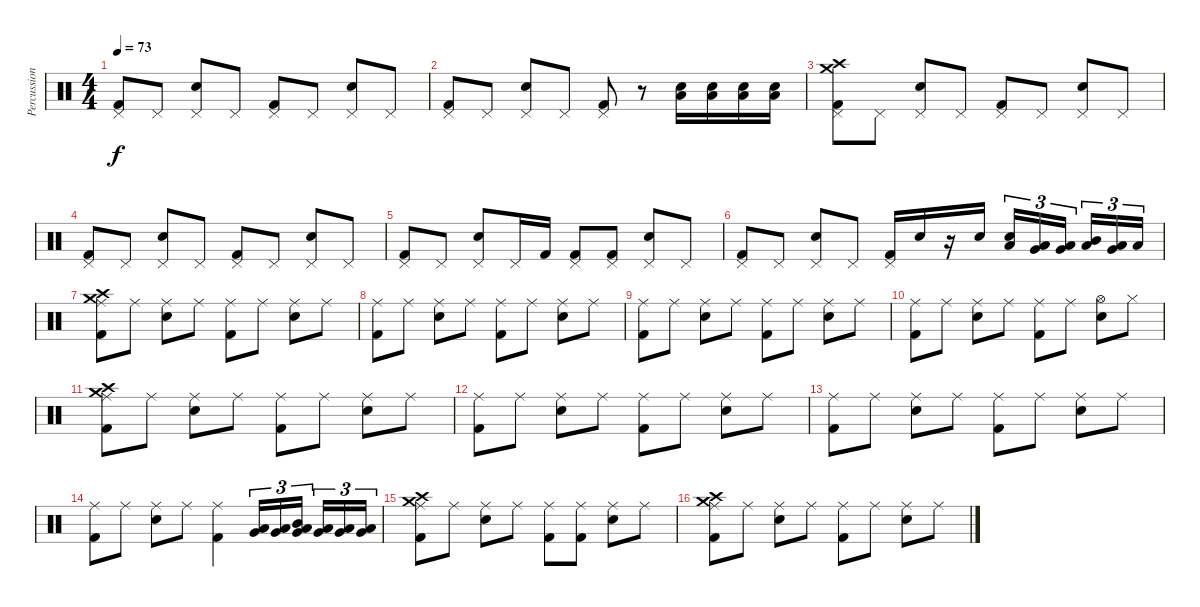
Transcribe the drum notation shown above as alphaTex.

\track ("Percussions" "Percussion") {instrument percussion}
\staff {score}
\articulation defaults
\ts (4 4)
\tempo 73
\clef neutral
\ks c
("Pedal Hi-Hat (hit)" "Kick (hit) 2").8{dy f} "Pedal Hi-Hat (hit)".8 ("Pedal Hi-Hat (hit)" "Electric Snare (hit)").8 "Pedal Hi-Hat (hit)".8 ("Pedal Hi-Hat (hit)" "Kick (hit) 2").8 "Pedal Hi-Hat (hit)".8 ("Pedal Hi-Hat (hit)" "Electric Snare (hit)").8 "Pedal Hi-Hat (hit)".8 |
("Pedal Hi-Hat (hit)" "Kick (hit) 2").8 "Pedal Hi-Hat (hit)".8 ("Pedal Hi-Hat (hit)" "Electric Snare (hit)").8 "Pedal Hi-Hat (hit)".8 ("Pedal Hi-Hat (hit)" "Kick (hit) 2").8 r.8 ("Low Floor Tom (hit)" "Electric Snare (hit)").16 ("Low Floor Tom (hit)" "Electric Snare (hit)").16 ("Low Floor Tom (hit)" "Electric Snare (hit)").16 ("Low Floor Tom (hit)" "Electric Snare (hit)").16 |
("Crash medium (hit)" "Crash high (hit)" "Pedal Hi-Hat (hit)" "Kick (hit) 2").8 "Pedal Hi-Hat (hit)".8 ("Pedal Hi-Hat (hit)" "Electric Snare (hit)").8 "Pedal Hi-Hat (hit)".8 ("Pedal Hi-Hat (hit)" "Kick (hit) 2").8 "Pedal Hi-Hat (hit)".8 ("Pedal Hi-Hat (hit)" "Electric Snare (hit)").8 "Pedal Hi-Hat (hit)".8 |
("Pedal Hi-Hat (hit)" "Kick (hit) 2").8 "Pedal Hi-Hat (hit)".8 ("Pedal Hi-Hat (hit)" "Electric Snare (hit)").8 "Pedal Hi-Hat (hit)".8 ("Pedal Hi-Hat (hit)" "Kick (hit) 2").8 "Pedal Hi-Hat (hit)".8 ("Pedal Hi-Hat (hit)" "Electric Snare (hit)").8 "Pedal Hi-Hat (hit)".8 |
("Pedal Hi-Hat (hit)" "Kick (hit) 2").8 "Pedal Hi-Hat (hit)".8 ("Pedal Hi-Hat (hit)" "Electric Snare (hit)").8 "Pedal Hi-Hat (hit)".16 "Kick (hit) 2".16 ("Pedal Hi-Hat (hit)" "Kick (hit) 2").8 ("Pedal Hi-Hat (hit)" "Kick (hit) 2").8 ("Pedal Hi-Hat (hit)" "Electric Snare (hit)").8 "Pedal Hi-Hat (hit)".8 |
("Pedal Hi-Hat (hit)" "Kick (hit) 2").8 "Pedal Hi-Hat (hit)".8 ("Pedal Hi-Hat (hit)" "Electric Snare (hit)").8 "Pedal Hi-Hat (hit)".8 ("Pedal Hi-Hat (hit)" "Kick (hit) 2").16 "Electric Snare (hit)".16 r.16 "Electric Snare (hit)".16 ("Electric Snare (hit)" "Low Floor Tom (hit)").16{tu (3 2)} ("Very Low Tom (hit)" "Low Floor Tom (hit)").16{tu (3 2)} ("Low Tom (hit)" "Very Low Tom (hit)").16{tu (3 2) beam splitsecondary} ("Mid Tom (hit)" "Low Tom (hit)").16{tu (3 2)} ("Low Tom (hit)" "Very Low Tom (hit)").16{tu (3 2)} "Low Floor Tom (hit)".16{tu (3 2)} |
("Crash medium (hit)" "Ride (middle)" "Crash high (hit)" "Kick (hit) 2").8 "Ride (middle)".8 ("Ride (middle)" "Electric Snare (hit)").8 "Ride (middle)".8 ("Ride (middle)" "Kick (hit) 2").8 "Ride (middle)".8 ("Ride (middle)" "Electric Snare (hit)").8 "Ride (middle)".8 |
("Ride (middle)" "Kick (hit) 2").8 "Ride (middle)".8 ("Ride (middle)" "Electric Snare (hit)").8 "Ride (middle)".8 ("Ride (middle)" "Kick (hit) 2").8 "Ride (middle)".8 ("Ride (middle)" "Electric Snare (hit)").8 "Ride (middle)".8 |
("Ride (middle)" "Kick (hit) 2").8 "Ride (middle)".8 ("Ride (middle)" "Electric Snare (hit)").8 "Ride (middle)".8 ("Ride (middle)" "Kick (hit) 2").8 "Ride (middle)".8 ("Ride (middle)" "Electric Snare (hit)").8 "Ride (middle)".8 |
("Ride (middle)" "Kick (hit) 2").8 "Ride (middle)".8 ("Ride (middle)" "Electric Snare (hit)").8 "Ride (middle)".8 ("Ride (middle)" "Kick (hit) 2").8 "Ride (middle)".8 ("Hi-Hat (open)" "Electric Snare (hit)").8 "Hi-Hat (closed)".8 |
("Crash medium (hit)" "Ride (middle)" "Crash high (hit)" "Kick (hit) 2").8 "Ride (middle)".8 ("Ride (middle)" "Electric Snare (hit)").8 "Ride (middle)".8 ("Ride (middle)" "Kick (hit) 2").8 "Ride (middle)".8 ("Ride (middle)" "Electric Snare (hit)").8 "Ride (middle)".8 |
("Ride (middle)" "Kick (hit) 2").8 "Ride (middle)".8 ("Ride (middle)" "Electric Snare (hit)").8 "Ride (middle)".8 ("Ride (middle)" "Kick (hit) 2").8 "Ride (middle)".8 ("Ride (middle)" "Electric Snare (hit)").8 "Ride (middle)".8 |
("Ride (middle)" "Kick (hit) 2").8 "Ride (middle)".8 ("Ride (middle)" "Electric Snare (hit)").8 "Ride (middle)".8 ("Ride (middle)" "Kick (hit) 2").8 "Ride (middle)".8 ("Ride (middle)" "Electric Snare (hit)").8 "Ride (middle)".8 |
("Ride (middle)" "Kick (hit) 2").8 "Ride (middle)".8 ("Ride (middle)" "Electric Snare (hit)").8 "Ride (middle)".8 ("Ride (middle)" "Kick (hit) 2").4 ("Very Low Tom (hit)" "Low Floor Tom (hit)").16{tu (3 2)} ("Low Tom (hit)" "Very Low Tom (hit)").16{tu (3 2)} ("Mid Tom (hit)" "Low Tom (hit)" "Very Low Tom (hit)").16{tu (3 2) beam splitsecondary} ("Low Tom (hit)" "Very Low Tom (hit)").16{tu (3 2)} ("Very Low Tom (hit)" "Low Floor Tom (hit)").16{tu (3 2)} ("Very Low Tom (hit)" "Low Floor Tom (hit)").16{tu (3 2)} |
("Crash medium (hit)" "Ride (middle)" "Crash high (hit)" "Kick (hit) 2").8 "Ride (middle)".8 ("Ride (middle)" "Electric Snare (hit)").8 "Ride (middle)".8 ("Ride (middle)" "Kick (hit) 2").8 ("Ride (middle)" "Kick (hit) 2").8 ("Ride (middle)" "Electric Snare (hit)").8 "Ride (middle)".8 |
("Crash medium (hit)" "Ride (middle)" "Crash high (hit)" "Kick (hit) 2").8 "Ride (middle)".8 ("Ride (middle)" "Electric Snare (hit)").8 "Ride (middle)".8 ("Ride (middle)" "Kick (hit) 2").8 "Ride (middle)".8 ("Ride (middle)" "Electric Snare (hit)").8 "Ride (middle)".8
